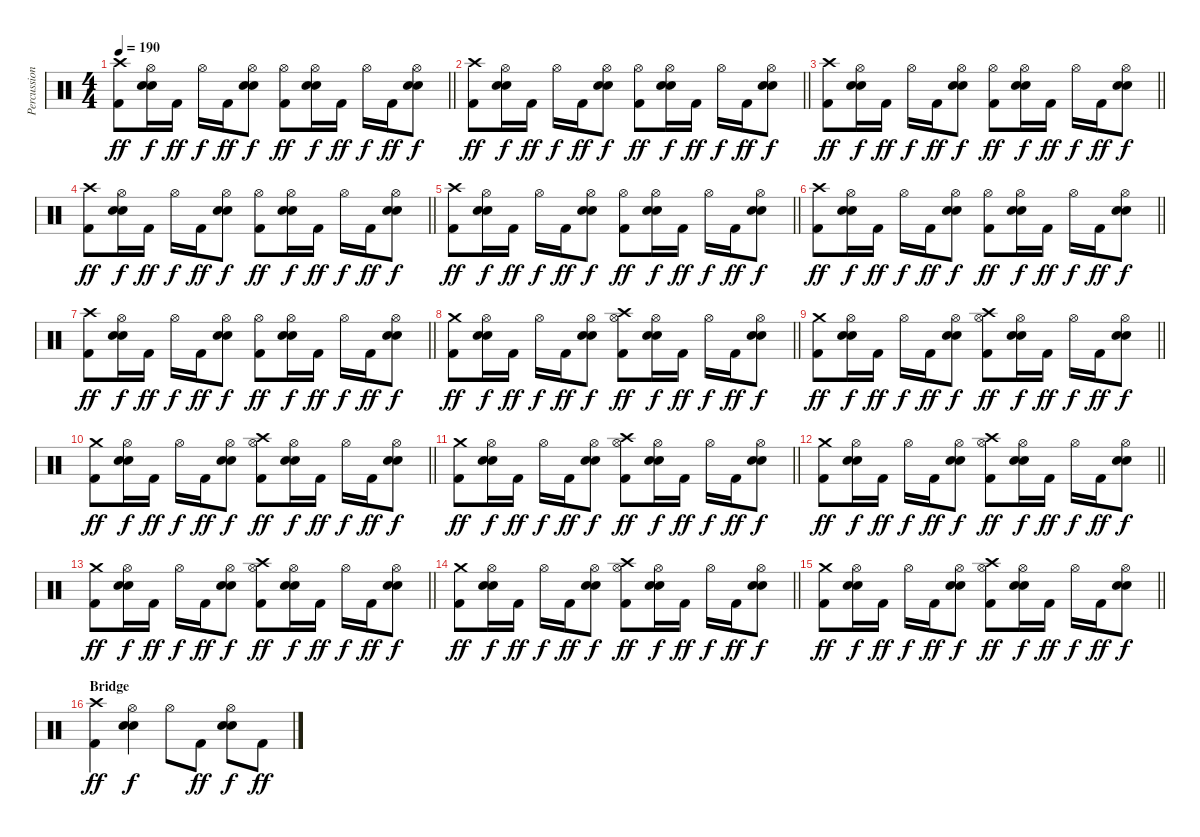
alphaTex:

\track ("Percussion" "Percussion") {instrument percussion}
\staff {score}
\articulation defaults
\ts (4 4)
\tempo 190
\clef neutral
\barLineRight lightlight
\ks c
("Crash high (hit)" "Kick (hit) 2").8{dy ff} ("Hi-Hat (open)" "Electric Snare (hit)" "Snare (hit) 2").16{dy f} "Kick (hit) 2".16{dy ff} "Hi-Hat (open)".16{dy f} "Kick (hit) 2".16{dy ff} ("Hi-Hat (open)" "Electric Snare (hit)" "Snare (hit) 2").8{dy f} ("Hi-Hat (open)" "Kick (hit) 2").8{dy ff} ("Hi-Hat (open)" "Electric Snare (hit)" "Snare (hit) 2").16{dy f} "Kick (hit) 2".16{dy ff} "Hi-Hat (open)".16{dy f} "Kick (hit) 2".16{dy ff} ("Hi-Hat (open)" "Electric Snare (hit)" "Snare (hit) 2").8{dy f} |
\barLineRight lightlight
("Crash high (hit)" "Kick (hit) 2").8{dy ff} ("Hi-Hat (open)" "Electric Snare (hit)" "Snare (hit) 2").16{dy f} "Kick (hit) 2".16{dy ff} "Hi-Hat (open)".16{dy f} "Kick (hit) 2".16{dy ff} ("Hi-Hat (open)" "Electric Snare (hit)" "Snare (hit) 2").8{dy f} ("Hi-Hat (open)" "Kick (hit) 2").8{dy ff} ("Hi-Hat (open)" "Electric Snare (hit)" "Snare (hit) 2").16{dy f} "Kick (hit) 2".16{dy ff} "Hi-Hat (open)".16{dy f} "Kick (hit) 2".16{dy ff} ("Hi-Hat (open)" "Electric Snare (hit)" "Snare (hit) 2").8{dy f} |
\barLineRight lightlight
("Crash high (hit)" "Kick (hit) 2").8{dy ff} ("Hi-Hat (open)" "Electric Snare (hit)" "Snare (hit) 2").16{dy f} "Kick (hit) 2".16{dy ff} "Hi-Hat (open)".16{dy f} "Kick (hit) 2".16{dy ff} ("Hi-Hat (open)" "Electric Snare (hit)" "Snare (hit) 2").8{dy f} ("Hi-Hat (open)" "Kick (hit) 2").8{dy ff} ("Hi-Hat (open)" "Electric Snare (hit)" "Snare (hit) 2").16{dy f} "Kick (hit) 2".16{dy ff} "Hi-Hat (open)".16{dy f} "Kick (hit) 2".16{dy ff} ("Hi-Hat (open)" "Electric Snare (hit)" "Snare (hit) 2").8{dy f} |
\barLineRight lightlight
("Crash high (hit)" "Kick (hit) 2").8{dy ff} ("Hi-Hat (open)" "Electric Snare (hit)" "Snare (hit) 2").16{dy f} "Kick (hit) 2".16{dy ff} "Hi-Hat (open)".16{dy f} "Kick (hit) 2".16{dy ff} ("Hi-Hat (open)" "Electric Snare (hit)" "Snare (hit) 2").8{dy f} ("Hi-Hat (open)" "Kick (hit) 2").8{dy ff} ("Hi-Hat (open)" "Electric Snare (hit)" "Snare (hit) 2").16{dy f} "Kick (hit) 2".16{dy ff} "Hi-Hat (open)".16{dy f} "Kick (hit) 2".16{dy ff} ("Hi-Hat (open)" "Electric Snare (hit)" "Snare (hit) 2").8{dy f} |
\barLineRight lightlight
("Crash high (hit)" "Kick (hit) 2").8{dy ff} ("Hi-Hat (open)" "Electric Snare (hit)" "Snare (hit) 2").16{dy f} "Kick (hit) 2".16{dy ff} "Hi-Hat (open)".16{dy f} "Kick (hit) 2".16{dy ff} ("Hi-Hat (open)" "Electric Snare (hit)" "Snare (hit) 2").8{dy f} ("Hi-Hat (open)" "Kick (hit) 2").8{dy ff} ("Hi-Hat (open)" "Electric Snare (hit)" "Snare (hit) 2").16{dy f} "Kick (hit) 2".16{dy ff} "Hi-Hat (open)".16{dy f} "Kick (hit) 2".16{dy ff} ("Hi-Hat (open)" "Electric Snare (hit)" "Snare (hit) 2").8{dy f} |
\barLineRight lightlight
("Crash high (hit)" "Kick (hit) 2").8{dy ff} ("Hi-Hat (open)" "Electric Snare (hit)" "Snare (hit) 2").16{dy f} "Kick (hit) 2".16{dy ff} "Hi-Hat (open)".16{dy f} "Kick (hit) 2".16{dy ff} ("Hi-Hat (open)" "Electric Snare (hit)" "Snare (hit) 2").8{dy f} ("Hi-Hat (open)" "Kick (hit) 2").8{dy ff} ("Hi-Hat (open)" "Electric Snare (hit)" "Snare (hit) 2").16{dy f} "Kick (hit) 2".16{dy ff} "Hi-Hat (open)".16{dy f} "Kick (hit) 2".16{dy ff} ("Hi-Hat (open)" "Electric Snare (hit)" "Snare (hit) 2").8{dy f} |
\barLineRight lightlight
("Crash high (hit)" "Kick (hit) 2").8{dy ff} ("Hi-Hat (open)" "Electric Snare (hit)" "Snare (hit) 2").16{dy f} "Kick (hit) 2".16{dy ff} "Hi-Hat (open)".16{dy f} "Kick (hit) 2".16{dy ff} ("Hi-Hat (open)" "Electric Snare (hit)" "Snare (hit) 2").8{dy f} ("Hi-Hat (open)" "Kick (hit) 2").8{dy ff} ("Hi-Hat (open)" "Electric Snare (hit)" "Snare (hit) 2").16{dy f} "Kick (hit) 2".16{dy ff} "Hi-Hat (open)".16{dy f} "Kick (hit) 2".16{dy ff} ("Hi-Hat (open)" "Electric Snare (hit)" "Snare (hit) 2").8{dy f} |
\barLineRight lightlight
("Crash medium (hit)" "Kick (hit) 2").8{dy ff} ("Hi-Hat (open)" "Electric Snare (hit)" "Snare (hit) 2").16{dy f} "Kick (hit) 2".16{dy ff} "Hi-Hat (open)".16{dy f} "Kick (hit) 2".16{dy ff} ("Hi-Hat (open)" "Electric Snare (hit)" "Snare (hit) 2").8{dy f} ("Crash high (hit)" "Hi-Hat (open)" "Kick (hit) 2").8{dy ff} ("Hi-Hat (open)" "Electric Snare (hit)" "Snare (hit) 2").16{dy f} "Kick (hit) 2".16{dy ff} "Hi-Hat (open)".16{dy f} "Kick (hit) 2".16{dy ff} ("Hi-Hat (open)" "Electric Snare (hit)" "Snare (hit) 2").8{dy f} |
\barLineRight lightlight
("Crash medium (hit)" "Kick (hit) 2").8{dy ff} ("Hi-Hat (open)" "Electric Snare (hit)" "Snare (hit) 2").16{dy f} "Kick (hit) 2".16{dy ff} "Hi-Hat (open)".16{dy f} "Kick (hit) 2".16{dy ff} ("Hi-Hat (open)" "Electric Snare (hit)" "Snare (hit) 2").8{dy f} ("Crash high (hit)" "Hi-Hat (open)" "Kick (hit) 2").8{dy ff} ("Hi-Hat (open)" "Electric Snare (hit)" "Snare (hit) 2").16{dy f} "Kick (hit) 2".16{dy ff} "Hi-Hat (open)".16{dy f} "Kick (hit) 2".16{dy ff} ("Hi-Hat (open)" "Electric Snare (hit)" "Snare (hit) 2").8{dy f} |
\barLineRight lightlight
("Crash medium (hit)" "Kick (hit) 2").8{dy ff} ("Hi-Hat (open)" "Electric Snare (hit)" "Snare (hit) 2").16{dy f} "Kick (hit) 2".16{dy ff} "Hi-Hat (open)".16{dy f} "Kick (hit) 2".16{dy ff} ("Hi-Hat (open)" "Electric Snare (hit)" "Snare (hit) 2").8{dy f} ("Crash high (hit)" "Hi-Hat (open)" "Kick (hit) 2").8{dy ff} ("Hi-Hat (open)" "Electric Snare (hit)" "Snare (hit) 2").16{dy f} "Kick (hit) 2".16{dy ff} "Hi-Hat (open)".16{dy f} "Kick (hit) 2".16{dy ff} ("Hi-Hat (open)" "Electric Snare (hit)" "Snare (hit) 2").8{dy f} |
\barLineRight lightlight
("Crash medium (hit)" "Kick (hit) 2").8{dy ff} ("Hi-Hat (open)" "Electric Snare (hit)" "Snare (hit) 2").16{dy f} "Kick (hit) 2".16{dy ff} "Hi-Hat (open)".16{dy f} "Kick (hit) 2".16{dy ff} ("Hi-Hat (open)" "Electric Snare (hit)" "Snare (hit) 2").8{dy f} ("Crash high (hit)" "Hi-Hat (open)" "Kick (hit) 2").8{dy ff} ("Hi-Hat (open)" "Electric Snare (hit)" "Snare (hit) 2").16{dy f} "Kick (hit) 2".16{dy ff} "Hi-Hat (open)".16{dy f} "Kick (hit) 2".16{dy ff} ("Hi-Hat (open)" "Electric Snare (hit)" "Snare (hit) 2").8{dy f} |
\barLineRight lightlight
("Crash medium (hit)" "Kick (hit) 2").8{dy ff} ("Hi-Hat (open)" "Electric Snare (hit)" "Snare (hit) 2").16{dy f} "Kick (hit) 2".16{dy ff} "Hi-Hat (open)".16{dy f} "Kick (hit) 2".16{dy ff} ("Hi-Hat (open)" "Electric Snare (hit)" "Snare (hit) 2").8{dy f} ("Crash high (hit)" "Hi-Hat (open)" "Kick (hit) 2").8{dy ff} ("Hi-Hat (open)" "Electric Snare (hit)" "Snare (hit) 2").16{dy f} "Kick (hit) 2".16{dy ff} "Hi-Hat (open)".16{dy f} "Kick (hit) 2".16{dy ff} ("Hi-Hat (open)" "Electric Snare (hit)" "Snare (hit) 2").8{dy f} |
\barLineRight lightlight
("Crash medium (hit)" "Kick (hit) 2").8{dy ff} ("Hi-Hat (open)" "Electric Snare (hit)" "Snare (hit) 2").16{dy f} "Kick (hit) 2".16{dy ff} "Hi-Hat (open)".16{dy f} "Kick (hit) 2".16{dy ff} ("Hi-Hat (open)" "Electric Snare (hit)" "Snare (hit) 2").8{dy f} ("Crash high (hit)" "Hi-Hat (open)" "Kick (hit) 2").8{dy ff} ("Hi-Hat (open)" "Electric Snare (hit)" "Snare (hit) 2").16{dy f} "Kick (hit) 2".16{dy ff} "Hi-Hat (open)".16{dy f} "Kick (hit) 2".16{dy ff} ("Hi-Hat (open)" "Electric Snare (hit)" "Snare (hit) 2").8{dy f} |
\barLineRight lightlight
("Crash medium (hit)" "Kick (hit) 2").8{dy ff} ("Hi-Hat (open)" "Electric Snare (hit)" "Snare (hit) 2").16{dy f} "Kick (hit) 2".16{dy ff} "Hi-Hat (open)".16{dy f} "Kick (hit) 2".16{dy ff} ("Hi-Hat (open)" "Electric Snare (hit)" "Snare (hit) 2").8{dy f} ("Crash high (hit)" "Hi-Hat (open)" "Kick (hit) 2").8{dy ff} ("Hi-Hat (open)" "Electric Snare (hit)" "Snare (hit) 2").16{dy f} "Kick (hit) 2".16{dy ff} "Hi-Hat (open)".16{dy f} "Kick (hit) 2".16{dy ff} ("Hi-Hat (open)" "Electric Snare (hit)" "Snare (hit) 2").8{dy f} |
\barLineRight lightlight
("Crash medium (hit)" "Kick (hit) 2").8{dy ff} ("Hi-Hat (open)" "Electric Snare (hit)" "Snare (hit) 2").16{dy f} "Kick (hit) 2".16{dy ff} "Hi-Hat (open)".16{dy f} "Kick (hit) 2".16{dy ff} ("Hi-Hat (open)" "Electric Snare (hit)" "Snare (hit) 2").8{dy f} ("Crash high (hit)" "Hi-Hat (open)" "Kick (hit) 2").8{dy ff} ("Hi-Hat (open)" "Electric Snare (hit)" "Snare (hit) 2").16{dy f} "Kick (hit) 2".16{dy ff} "Hi-Hat (open)".16{dy f} "Kick (hit) 2".16{dy ff} ("Hi-Hat (open)" "Electric Snare (hit)" "Snare (hit) 2").8{dy f} |
\section ("" "Bridge")
("Crash high (hit)" "Kick (hit) 2").4{dy ff} ("Hi-Hat (open)" "Electric Snare (hit)" "Snare (hit) 2").4{dy f} "Hi-Hat (open)".8 "Kick (hit) 2".8{dy ff} ("Hi-Hat (open)" "Electric Snare (hit)" "Snare (hit) 2").8{dy f} "Kick (hit) 2".8{dy ff}
